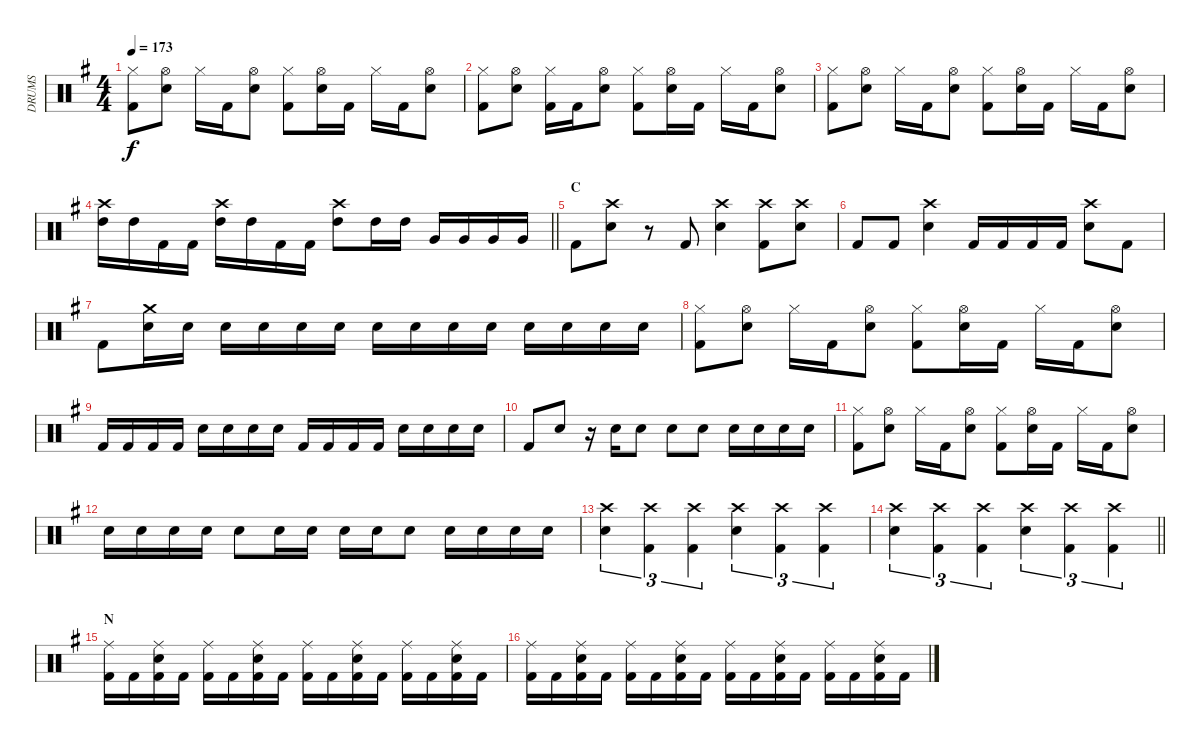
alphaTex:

\track ("DRUMS" "DRUMS") {instrument percussion}
\staff {score}
\articulation defaults
\ts (4 4)
\tempo 173
\clef neutral
\ks g
("Hi-Hat (closed)" "Kick (hit) 2").8{dy f} ("Hi-Hat (open)" "Snare (hit) 2").8 "Hi-Hat (closed)".16 "Kick (hit) 2".16 ("Hi-Hat (open)" "Snare (hit) 2").8 ("Hi-Hat (closed)" "Kick (hit) 2").8 ("Hi-Hat (open)" "Snare (hit) 2").16 "Kick (hit) 2".16 "Hi-Hat (closed)".16 "Kick (hit) 2".16 ("Hi-Hat (open)" "Snare (hit) 2").8 |
("Hi-Hat (closed)" "Kick (hit) 2").8 ("Hi-Hat (open)" "Snare (hit) 2").8 ("Hi-Hat (closed)" "Kick (hit) 2").16 "Kick (hit) 2".16 ("Hi-Hat (open)" "Snare (hit) 2").8 ("Hi-Hat (closed)" "Kick (hit) 2").8 ("Hi-Hat (open)" "Snare (hit) 2").16 "Kick (hit) 2".16 "Hi-Hat (closed)".16 "Kick (hit) 2".16 ("Hi-Hat (open)" "Snare (hit) 2").8 |
("Hi-Hat (closed)" "Kick (hit) 2").8 ("Hi-Hat (open)" "Snare (hit) 2").8 "Hi-Hat (closed)".16 "Kick (hit) 2".16 ("Hi-Hat (open)" "Snare (hit) 2").8 ("Hi-Hat (closed)" "Kick (hit) 2").8 ("Hi-Hat (open)" "Snare (hit) 2").16 "Kick (hit) 2".16 "Hi-Hat (closed)".16 "Kick (hit) 2".16 ("Hi-Hat (open)" "Snare (hit) 2").8 |
\barLineRight lightlight
("Crash high (hit)" "High Tom (hit)").16 "High Tom (hit)".16 "Kick (hit) 2".16 "Kick (hit) 2".16 ("Crash high (hit)" "High Tom (hit)").16 "High Tom (hit)".16 "Kick (hit) 2".16 "Kick (hit) 2".16 ("Crash high (hit)" "High Tom (hit)").8 "High Tom (hit)".16 "High Tom (hit)".16 "Very Low Tom (hit)".16 "Very Low Tom (hit)".16 "Very Low Tom (hit)".16 "Very Low Tom (hit)".16 |
\section ("" "C")
"Kick (hit) 2".8 ("Crash high (hit)" "Snare (hit) 2").8 r.8 "Kick (hit) 2".8 ("Crash high (hit)" "Snare (hit) 2").4 ("Crash high (hit)" "Kick (hit) 2").8 ("Crash high (hit)" "Snare (hit) 2").8 |
"Kick (hit) 2".8 "Kick (hit) 2".8 ("Crash high (hit)" "Snare (hit) 2").4 "Kick (hit) 2".16 "Kick (hit) 2".16 "Kick (hit) 2".16 "Kick (hit) 2".16 ("Crash high (hit)" "Snare (hit) 2").8 "Kick (hit) 2".8 |
"Kick (hit) 2".8 ("Crash medium (hit)" "Snare (hit) 2").16 "Snare (hit) 2".16 "Snare (hit) 2".16 "Snare (hit) 2".16 "Snare (hit) 2".16 "Snare (hit) 2".16 "Snare (hit) 2".16 "Snare (hit) 2".16 "Snare (hit) 2".16 "Snare (hit) 2".16 "Snare (hit) 2".16 "Snare (hit) 2".16 "Snare (hit) 2".16 "Snare (hit) 2".16 |
("Hi-Hat (closed)" "Kick (hit) 2").8 ("Hi-Hat (open)" "Snare (hit) 2").8 "Hi-Hat (closed)".16 "Kick (hit) 2".16 ("Hi-Hat (open)" "Snare (hit) 2").8 ("Hi-Hat (closed)" "Kick (hit) 2").8 ("Hi-Hat (open)" "Snare (hit) 2").16 "Kick (hit) 2".16 "Hi-Hat (closed)".16 "Kick (hit) 2".16 ("Hi-Hat (open)" "Snare (hit) 2").8 |
"Kick (hit) 2".16 "Kick (hit) 2".16 "Kick (hit) 2".16 "Kick (hit) 2".16 "Snare (hit) 2".16 "Snare (hit) 2".16 "Snare (hit) 2".16 "Snare (hit) 2".16 "Kick (hit) 2".16 "Kick (hit) 2".16 "Kick (hit) 2".16 "Kick (hit) 2".16 "Snare (hit) 2".16 "Snare (hit) 2".16 "Snare (hit) 2".16 "Snare (hit) 2".16 |
"Kick (hit) 2".8 "Snare (hit) 2".8 r.16 "Snare (hit) 2".16 "Snare (hit) 2".8 "Snare (hit) 2".8 "Snare (hit) 2".8 "Snare (hit) 2".16 "Snare (hit) 2".16 "Snare (hit) 2".16 "Snare (hit) 2".16 |
("Hi-Hat (closed)" "Kick (hit) 2").8 ("Hi-Hat (open)" "Snare (hit) 2").8 "Hi-Hat (closed)".16 "Kick (hit) 2".16 ("Hi-Hat (open)" "Snare (hit) 2").8 ("Hi-Hat (closed)" "Kick (hit) 2").8 ("Hi-Hat (open)" "Snare (hit) 2").16 "Kick (hit) 2".16 "Hi-Hat (closed)".16 "Kick (hit) 2".16 ("Hi-Hat (open)" "Snare (hit) 2").8 |
"Snare (hit) 2".16 "Snare (hit) 2".16 "Snare (hit) 2".16 "Snare (hit) 2".16 "Snare (hit) 2".8 "Snare (hit) 2".16 "Snare (hit) 2".16 "Snare (hit) 2".16 "Snare (hit) 2".16 "Snare (hit) 2".8 "Snare (hit) 2".16 "Snare (hit) 2".16 "Snare (hit) 2".16 "Snare (hit) 2".16 |
("Crash high (hit)" "Snare (hit) 2").4{tu (3 2)} ("Crash high (hit)" "Kick (hit) 2").4{tu (3 2)} ("Crash high (hit)" "Kick (hit) 2").4{tu (3 2)} ("Crash high (hit)" "Snare (hit) 2").4{tu (3 2)} ("Crash high (hit)" "Kick (hit) 2").4{tu (3 2)} ("Crash high (hit)" "Kick (hit) 2").4{tu (3 2)} |
\barLineRight lightlight
("Crash high (hit)" "Snare (hit) 2").4{tu (3 2)} ("Crash high (hit)" "Kick (hit) 2").4{tu (3 2)} ("Crash high (hit)" "Kick (hit) 2").4{tu (3 2)} ("Crash high (hit)" "Snare (hit) 2").4{tu (3 2)} ("Crash high (hit)" "Kick (hit) 2").4{tu (3 2)} ("Crash high (hit)" "Kick (hit) 2").4{tu (3 2)} |
\section ("" "N")
("Ride (middle)" "Kick (hit) 2").16 "Kick (hit) 2".16 ("Ride (middle)" "Snare (hit) 2" "Kick (hit) 2").16 "Kick (hit) 2".16 ("Ride (middle)" "Kick (hit) 2").16 "Kick (hit) 2".16 ("Ride (middle)" "Snare (hit) 2" "Kick (hit) 2").16 "Kick (hit) 2".16 ("Ride (middle)" "Kick (hit) 2").16 "Kick (hit) 2".16 ("Ride (middle)" "Snare (hit) 2" "Kick (hit) 2").16 "Kick (hit) 2".16 ("Ride (middle)" "Kick (hit) 2").16 "Kick (hit) 2".16 ("Ride (middle)" "Snare (hit) 2" "Kick (hit) 2").16 "Kick (hit) 2".16 |
("Ride (middle)" "Kick (hit) 2").16 "Kick (hit) 2".16 ("Ride (middle)" "Snare (hit) 2" "Kick (hit) 2").16 "Kick (hit) 2".16 ("Ride (middle)" "Kick (hit) 2").16 "Kick (hit) 2".16 ("Ride (middle)" "Snare (hit) 2" "Kick (hit) 2").16 "Kick (hit) 2".16 ("Ride (middle)" "Kick (hit) 2").16 "Kick (hit) 2".16 ("Ride (middle)" "Snare (hit) 2" "Kick (hit) 2").16 "Kick (hit) 2".16 ("Ride (middle)" "Kick (hit) 2").16 "Kick (hit) 2".16 ("Ride (middle)" "Snare (hit) 2" "Kick (hit) 2").16 "Kick (hit) 2".16
